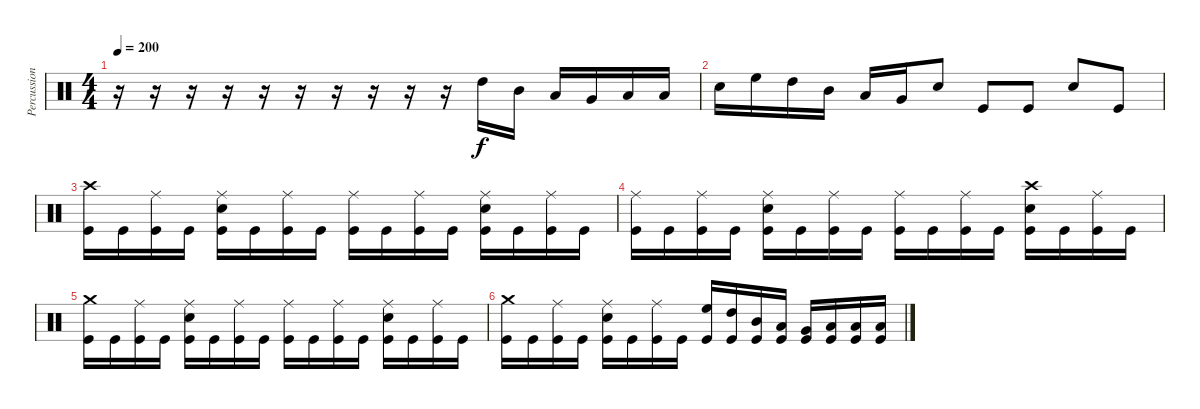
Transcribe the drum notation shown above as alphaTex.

\track ("Percussion" "Percussion") {instrument percussion}
\staff {score}
\articulation defaults
\ts (4 4)
\tempo 200
\clef neutral
\ks c
r.16{dy f} r.16 r.16 r.16 r.16 r.16 r.16 r.16 r.16 r.16 "High Tom (hit)".16 "Mid Tom (hit)".16 "Low Tom (hit)".16 "Very Low Tom (hit)".16 "Low Floor Tom (hit)".16 "Low Floor Tom (hit)".16 |
"Snare (hit) 2".16 "High Floor Tom (hit)".16 "High Tom (hit)".16 "Mid Tom (hit)".16 "Low Tom (hit)".16 "Very Low Tom (hit)".16 "Snare (hit) 2".8 "Kick (hit)".8 "Kick (hit)".8 "Snare (hit) 2".8 "Kick (hit)".8 |
("Crash high (hit)" "Kick (hit)").16 "Kick (hit)".16 ("Ride (middle)" "Kick (hit)").16 "Kick (hit)".16 ("Ride (middle)" "Snare (hit) 2" "Kick (hit)").16 "Kick (hit)".16 ("Ride (middle)" "Kick (hit)").16 "Kick (hit)".16 ("Ride (middle)" "Kick (hit)").16 "Kick (hit)".16 ("Ride (middle)" "Kick (hit)").16 "Kick (hit)".16 ("Ride (middle)" "Snare (hit) 2" "Kick (hit)").16 "Kick (hit)".16 ("Ride (middle)" "Kick (hit)").16 "Kick (hit)".16 |
("Ride (middle)" "Kick (hit)").16 "Kick (hit)".16 ("Ride (middle)" "Kick (hit)").16 "Kick (hit)".16 ("Ride (middle)" "Snare (hit) 2" "Kick (hit)").16 "Kick (hit)".16 ("Ride (middle)" "Kick (hit)").16 "Kick (hit)".16 ("Ride (middle)" "Kick (hit)").16 "Kick (hit)".16 ("Ride (middle)" "Kick (hit)").16 "Kick (hit)".16 ("Crash high (hit)" "Snare (hit) 2" "Kick (hit)").16 "Kick (hit)".16 ("Ride (middle)" "Kick (hit)").16 "Kick (hit)".16 |
("Crash medium (hit)" "Kick (hit)").16 "Kick (hit)".16 ("Ride (middle)" "Kick (hit)").16 "Kick (hit)".16 ("Ride (middle)" "Snare (hit) 2" "Kick (hit)").16 "Kick (hit)".16 ("Ride (middle)" "Kick (hit)").16 "Kick (hit)".16 ("Ride (middle)" "Kick (hit)").16 "Kick (hit)".16 ("Ride (middle)" "Kick (hit)").16 "Kick (hit)".16 ("Ride (middle)" "Snare (hit) 2" "Kick (hit)").16 "Kick (hit)".16 ("Ride (middle)" "Kick (hit)").16 "Kick (hit)".16 |
("Crash medium (hit)" "Kick (hit)").16 "Kick (hit)".16 ("Ride (middle)" "Kick (hit)").16 "Kick (hit)".16 ("Ride (middle)" "Snare (hit) 2" "Kick (hit)").16 "Kick (hit)".16 ("Ride (middle)" "Kick (hit)").16 "Kick (hit)".16 ("High Floor Tom (hit)" "Kick (hit)").16 ("High Tom (hit)" "Kick (hit)").16 ("Mid Tom (hit)" "Kick (hit)").16 ("Low Tom (hit)" "Kick (hit)").16 ("Very Low Tom (hit)" "Kick (hit)").16 ("Low Floor Tom (hit)" "Kick (hit)").16 ("Low Floor Tom (hit)" "Kick (hit)").16 ("Low Floor Tom (hit)" "Kick (hit)").16
